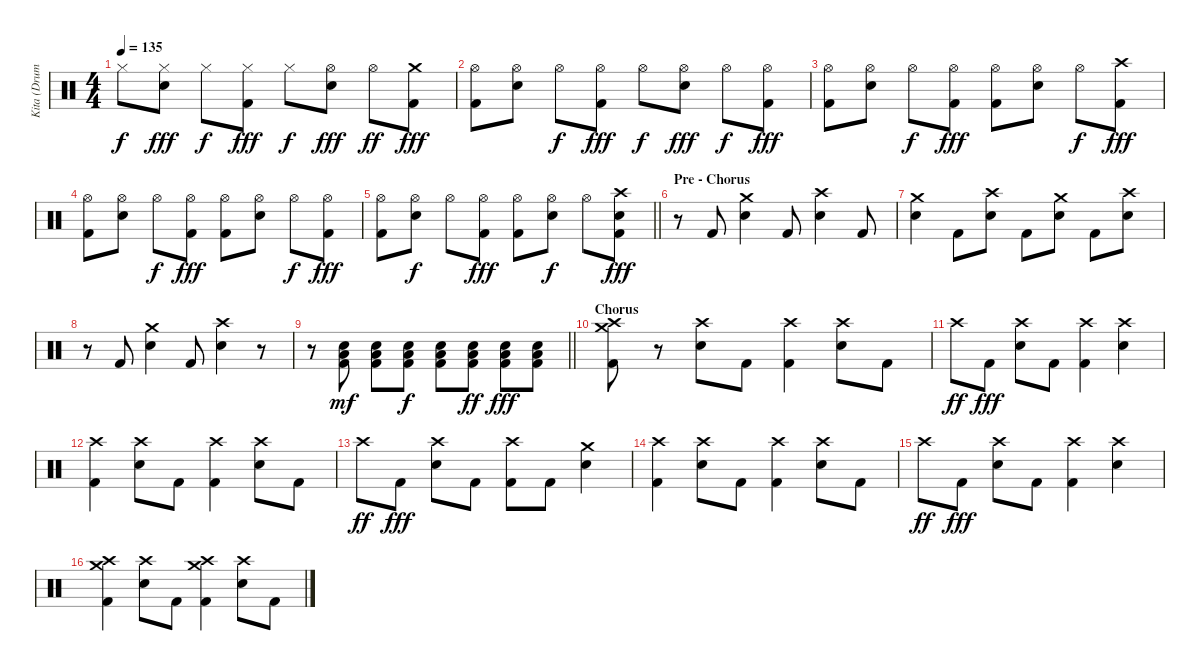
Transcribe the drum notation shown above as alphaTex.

\track ("Kita (Drums)" "Kita (Drum") {instrument percussion}
\staff {score}
\articulation defaults
\ts (4 4)
\tempo 135
\clef neutral
\ks c "Hi-Hat (closed)".8{dy f}
("Hi-Hat (closed)" "Electric Snare (hit)").8{dy fff} "Hi-Hat (closed)".8{dy f} ("Hi-Hat (closed)" "Kick (hit) 2").8{dy fff} "Hi-Hat (closed)".8{dy f} ("Hi-Hat (open)" "Electric Snare (hit)").8{dy fff} "Hi-Hat (open)".8{dy ff} ("Crash medium (hit)" "Kick (hit) 2").8{dy fff} |
("Hi-Hat (open)" "Kick (hit) 2").8 ("Hi-Hat (open)" "Electric Snare (hit)").8 "Hi-Hat (open)".8{dy f} ("Hi-Hat (open)" "Kick (hit) 2").8{dy fff} "Hi-Hat (open)".8{dy f} ("Hi-Hat (open)" "Electric Snare (hit)").8{dy fff} "Hi-Hat (open)".8{dy f} ("Hi-Hat (open)" "Kick (hit) 2").8{dy fff} |
("Hi-Hat (open)" "Kick (hit) 2").8 ("Hi-Hat (open)" "Electric Snare (hit)").8 "Hi-Hat (open)".8{dy f} ("Hi-Hat (open)" "Kick (hit) 2").8{dy fff} ("Hi-Hat (open)" "Kick (hit) 2").8 ("Hi-Hat (open)" "Electric Snare (hit)").8 "Hi-Hat (open)".8{dy f} ("Crash high (hit)" "Kick (hit) 2").8{dy fff} |
("Hi-Hat (open)" "Kick (hit) 2").8 ("Hi-Hat (open)" "Electric Snare (hit)").8 "Hi-Hat (open)".8{dy f} ("Hi-Hat (open)" "Kick (hit) 2").8{dy fff} ("Hi-Hat (open)" "Kick (hit) 2").8 ("Hi-Hat (open)" "Electric Snare (hit)").8 "Hi-Hat (open)".8{dy f} ("Hi-Hat (open)" "Kick (hit) 2").8{dy fff} |
\barLineRight lightlight
("Hi-Hat (open)" "Kick (hit) 2").8 ("Hi-Hat (open)" "Electric Snare (hit)").8{dy f} "Hi-Hat (open)".8 ("Hi-Hat (open)" "Kick (hit) 2").8{dy fff} ("Hi-Hat (open)" "Kick (hit) 2").8 ("Hi-Hat (open)" "Electric Snare (hit)").8{dy f} "Hi-Hat (open)".8 ("Crash high (hit)" "Electric Snare (hit)" "Kick (hit) 2").8{dy fff} |
\section ("" "Pre - Chorus")
r.8 "Kick (hit) 2".8 ("Crash medium (hit)" "Electric Snare (hit)").4 "Kick (hit) 2".8 ("Crash high (hit)" "Electric Snare (hit)").4 "Kick (hit) 2".8 |
("Crash medium (hit)" "Electric Snare (hit)").4 "Kick (hit) 2".8 ("Crash high (hit)" "Electric Snare (hit)").8 "Kick (hit) 2".8 ("Crash medium (hit)" "Electric Snare (hit)").8 "Kick (hit) 2".8 ("Crash high (hit)" "Electric Snare (hit)").8 |
r.8 "Kick (hit) 2".8 ("Crash medium (hit)" "Electric Snare (hit)").4 "Kick (hit) 2".8 ("Crash high (hit)" "Electric Snare (hit)").4 r.8 |
\barLineRight lightlight
r.8 ("Low Floor Tom (hit)" "Electric Snare (hit)" "Kick (hit) 2").8{dy mf} ("Low Floor Tom (hit)" "Electric Snare (hit)" "Kick (hit) 2").8 ("Low Floor Tom (hit)" "Electric Snare (hit)" "Kick (hit) 2").8{dy f} ("Low Floor Tom (hit)" "Electric Snare (hit)" "Kick (hit) 2").8 ("Low Floor Tom (hit)" "Electric Snare (hit)" "Kick (hit) 2").8{dy ff} ("Low Floor Tom (hit)" "Electric Snare (hit)" "Kick (hit) 2").8{dy fff} ("Low Floor Tom (hit)" "Electric Snare (hit)" "Kick (hit) 2").8 |
\section ("" "Chorus")
("Crash medium (hit)" "Crash high (hit)" "Kick (hit) 2").8 r.8 ("Crash high (hit)" "Electric Snare (hit)").8 "Kick (hit) 2".8 ("Crash high (hit)" "Kick (hit) 2").4 ("Crash high (hit)" "Electric Snare (hit)").8 "Kick (hit) 2".8 |
"Crash high (hit)".8{dy ff} "Kick (hit) 2".8{dy fff} ("Crash high (hit)" "Electric Snare (hit)").8 "Kick (hit) 2".8 ("Crash high (hit)" "Kick (hit) 2").4 ("Crash high (hit)" "Electric Snare (hit)").4 |
("Crash high (hit)" "Kick (hit) 2").4 ("Crash high (hit)" "Electric Snare (hit)").8 "Kick (hit) 2".8 ("Crash high (hit)" "Kick (hit) 2").4 ("Crash high (hit)" "Electric Snare (hit)").8 "Kick (hit) 2".8 |
"Crash high (hit)".8{dy ff} "Kick (hit) 2".8{dy fff} ("Crash high (hit)" "Electric Snare (hit)").8 "Kick (hit) 2".8 ("Crash high (hit)" "Kick (hit) 2").8 "Kick (hit) 2".8 ("Crash medium (hit)" "Electric Snare (hit)").4 |
("Crash high (hit)" "Kick (hit) 2").4 ("Crash high (hit)" "Electric Snare (hit)").8 "Kick (hit) 2".8 ("Crash high (hit)" "Kick (hit) 2").4 ("Crash high (hit)" "Electric Snare (hit)").8 "Kick (hit) 2".8 |
"Crash high (hit)".8{dy ff} "Kick (hit) 2".8{dy fff} ("Crash high (hit)" "Electric Snare (hit)").8 "Kick (hit) 2".8 ("Crash high (hit)" "Kick (hit) 2").4 ("Crash high (hit)" "Electric Snare (hit)").4 |
("Crash medium (hit)" "Crash high (hit)" "Kick (hit) 2").4 ("Crash high (hit)" "Electric Snare (hit)").8 "Kick (hit) 2".8 ("Crash medium (hit)" "Crash high (hit)" "Kick (hit) 2").4 ("Crash high (hit)" "Electric Snare (hit)").8 "Kick (hit) 2".8
